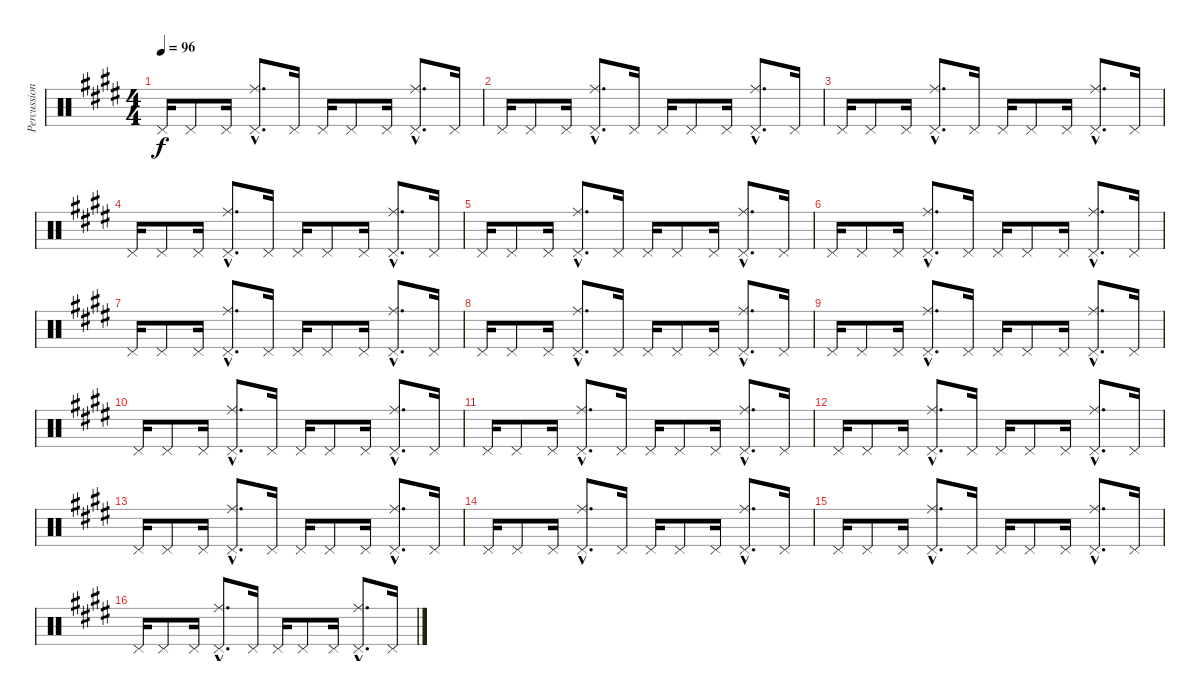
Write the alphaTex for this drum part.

\track ("Percussions" "Percussion") {instrument percussion}
\staff {score}
\articulation defaults
\ts (4 4)
\tempo 96
\clef neutral
\ks e "Pedal Hi-Hat (hit)".16{dy f} "Pedal Hi-Hat (hit)".8 "Pedal Hi-Hat (hit)".16
("Pedal Hi-Hat (hit)"{hac} "Ride (middle)"{hac}).8{d} "Pedal Hi-Hat (hit)".16 "Pedal Hi-Hat (hit)".16 "Pedal Hi-Hat (hit)".8 "Pedal Hi-Hat (hit)".16 ("Pedal Hi-Hat (hit)"{hac} "Ride (middle)"{hac}).8{d} "Pedal Hi-Hat (hit)".16 |
"Pedal Hi-Hat (hit)".16 "Pedal Hi-Hat (hit)".8 "Pedal Hi-Hat (hit)".16 ("Pedal Hi-Hat (hit)"{hac} "Ride (middle)"{hac}).8{d} "Pedal Hi-Hat (hit)".16 "Pedal Hi-Hat (hit)".16 "Pedal Hi-Hat (hit)".8 "Pedal Hi-Hat (hit)".16 ("Pedal Hi-Hat (hit)"{hac} "Ride (middle)"{hac}).8{d} "Pedal Hi-Hat (hit)".16 |
"Pedal Hi-Hat (hit)".16 "Pedal Hi-Hat (hit)".8 "Pedal Hi-Hat (hit)".16 ("Pedal Hi-Hat (hit)"{hac} "Ride (middle)"{hac}).8{d} "Pedal Hi-Hat (hit)".16 "Pedal Hi-Hat (hit)".16 "Pedal Hi-Hat (hit)".8 "Pedal Hi-Hat (hit)".16 ("Pedal Hi-Hat (hit)"{hac} "Ride (middle)"{hac}).8{d} "Pedal Hi-Hat (hit)".16 |
"Pedal Hi-Hat (hit)".16 "Pedal Hi-Hat (hit)".8 "Pedal Hi-Hat (hit)".16 ("Pedal Hi-Hat (hit)"{hac} "Ride (middle)"{hac}).8{d} "Pedal Hi-Hat (hit)".16 "Pedal Hi-Hat (hit)".16 "Pedal Hi-Hat (hit)".8 "Pedal Hi-Hat (hit)".16 ("Pedal Hi-Hat (hit)"{hac} "Ride (middle)"{hac}).8{d} "Pedal Hi-Hat (hit)".16 |
"Pedal Hi-Hat (hit)".16 "Pedal Hi-Hat (hit)".8 "Pedal Hi-Hat (hit)".16 ("Pedal Hi-Hat (hit)"{hac} "Ride (middle)"{hac}).8{d} "Pedal Hi-Hat (hit)".16 "Pedal Hi-Hat (hit)".16 "Pedal Hi-Hat (hit)".8 "Pedal Hi-Hat (hit)".16 ("Pedal Hi-Hat (hit)"{hac} "Ride (middle)"{hac}).8{d} "Pedal Hi-Hat (hit)".16 |
"Pedal Hi-Hat (hit)".16 "Pedal Hi-Hat (hit)".8 "Pedal Hi-Hat (hit)".16 ("Pedal Hi-Hat (hit)"{hac} "Ride (middle)"{hac}).8{d} "Pedal Hi-Hat (hit)".16 "Pedal Hi-Hat (hit)".16 "Pedal Hi-Hat (hit)".8 "Pedal Hi-Hat (hit)".16 ("Pedal Hi-Hat (hit)"{hac} "Ride (middle)"{hac}).8{d} "Pedal Hi-Hat (hit)".16 |
"Pedal Hi-Hat (hit)".16 "Pedal Hi-Hat (hit)".8 "Pedal Hi-Hat (hit)".16 ("Pedal Hi-Hat (hit)"{hac} "Ride (middle)"{hac}).8{d} "Pedal Hi-Hat (hit)".16 "Pedal Hi-Hat (hit)".16 "Pedal Hi-Hat (hit)".8 "Pedal Hi-Hat (hit)".16 ("Pedal Hi-Hat (hit)"{hac} "Ride (middle)"{hac}).8{d} "Pedal Hi-Hat (hit)".16 |
"Pedal Hi-Hat (hit)".16 "Pedal Hi-Hat (hit)".8 "Pedal Hi-Hat (hit)".16 ("Pedal Hi-Hat (hit)"{hac} "Ride (middle)"{hac}).8{d} "Pedal Hi-Hat (hit)".16 "Pedal Hi-Hat (hit)".16 "Pedal Hi-Hat (hit)".8 "Pedal Hi-Hat (hit)".16 ("Pedal Hi-Hat (hit)"{hac} "Ride (middle)"{hac}).8{d} "Pedal Hi-Hat (hit)".16 |
"Pedal Hi-Hat (hit)".16 "Pedal Hi-Hat (hit)".8 "Pedal Hi-Hat (hit)".16 ("Pedal Hi-Hat (hit)"{hac} "Ride (middle)"{hac}).8{d} "Pedal Hi-Hat (hit)".16 "Pedal Hi-Hat (hit)".16 "Pedal Hi-Hat (hit)".8 "Pedal Hi-Hat (hit)".16 ("Pedal Hi-Hat (hit)"{hac} "Ride (middle)"{hac}).8{d} "Pedal Hi-Hat (hit)".16 |
"Pedal Hi-Hat (hit)".16 "Pedal Hi-Hat (hit)".8 "Pedal Hi-Hat (hit)".16 ("Pedal Hi-Hat (hit)"{hac} "Ride (middle)"{hac}).8{d} "Pedal Hi-Hat (hit)".16 "Pedal Hi-Hat (hit)".16 "Pedal Hi-Hat (hit)".8 "Pedal Hi-Hat (hit)".16 ("Pedal Hi-Hat (hit)"{hac} "Ride (middle)"{hac}).8{d} "Pedal Hi-Hat (hit)".16 |
"Pedal Hi-Hat (hit)".16 "Pedal Hi-Hat (hit)".8 "Pedal Hi-Hat (hit)".16 ("Pedal Hi-Hat (hit)"{hac} "Ride (middle)"{hac}).8{d} "Pedal Hi-Hat (hit)".16 "Pedal Hi-Hat (hit)".16 "Pedal Hi-Hat (hit)".8 "Pedal Hi-Hat (hit)".16 ("Pedal Hi-Hat (hit)"{hac} "Ride (middle)"{hac}).8{d} "Pedal Hi-Hat (hit)".16 |
"Pedal Hi-Hat (hit)".16 "Pedal Hi-Hat (hit)".8 "Pedal Hi-Hat (hit)".16 ("Pedal Hi-Hat (hit)"{hac} "Ride (middle)"{hac}).8{d} "Pedal Hi-Hat (hit)".16 "Pedal Hi-Hat (hit)".16 "Pedal Hi-Hat (hit)".8 "Pedal Hi-Hat (hit)".16 ("Pedal Hi-Hat (hit)"{hac} "Ride (middle)"{hac}).8{d} "Pedal Hi-Hat (hit)".16 |
"Pedal Hi-Hat (hit)".16 "Pedal Hi-Hat (hit)".8 "Pedal Hi-Hat (hit)".16 ("Pedal Hi-Hat (hit)"{hac} "Ride (middle)"{hac}).8{d} "Pedal Hi-Hat (hit)".16 "Pedal Hi-Hat (hit)".16 "Pedal Hi-Hat (hit)".8 "Pedal Hi-Hat (hit)".16 ("Pedal Hi-Hat (hit)"{hac} "Ride (middle)"{hac}).8{d} "Pedal Hi-Hat (hit)".16 |
"Pedal Hi-Hat (hit)".16 "Pedal Hi-Hat (hit)".8 "Pedal Hi-Hat (hit)".16 ("Pedal Hi-Hat (hit)"{hac} "Ride (middle)"{hac}).8{d} "Pedal Hi-Hat (hit)".16 "Pedal Hi-Hat (hit)".16 "Pedal Hi-Hat (hit)".8 "Pedal Hi-Hat (hit)".16 ("Pedal Hi-Hat (hit)"{hac} "Ride (middle)"{hac}).8{d} "Pedal Hi-Hat (hit)".16 |
"Pedal Hi-Hat (hit)".16 "Pedal Hi-Hat (hit)".8 "Pedal Hi-Hat (hit)".16 ("Pedal Hi-Hat (hit)"{hac} "Ride (middle)"{hac}).8{d} "Pedal Hi-Hat (hit)".16 "Pedal Hi-Hat (hit)".16 "Pedal Hi-Hat (hit)".8 "Pedal Hi-Hat (hit)".16 ("Pedal Hi-Hat (hit)"{hac} "Ride (middle)"{hac}).8{d} "Pedal Hi-Hat (hit)".16 |
"Pedal Hi-Hat (hit)".16 "Pedal Hi-Hat (hit)".8 "Pedal Hi-Hat (hit)".16 ("Pedal Hi-Hat (hit)"{hac} "Ride (middle)"{hac}).8{d} "Pedal Hi-Hat (hit)".16 "Pedal Hi-Hat (hit)".16 "Pedal Hi-Hat (hit)".8 "Pedal Hi-Hat (hit)".16 ("Pedal Hi-Hat (hit)"{hac} "Ride (middle)"{hac}).8{d} "Pedal Hi-Hat (hit)".16
